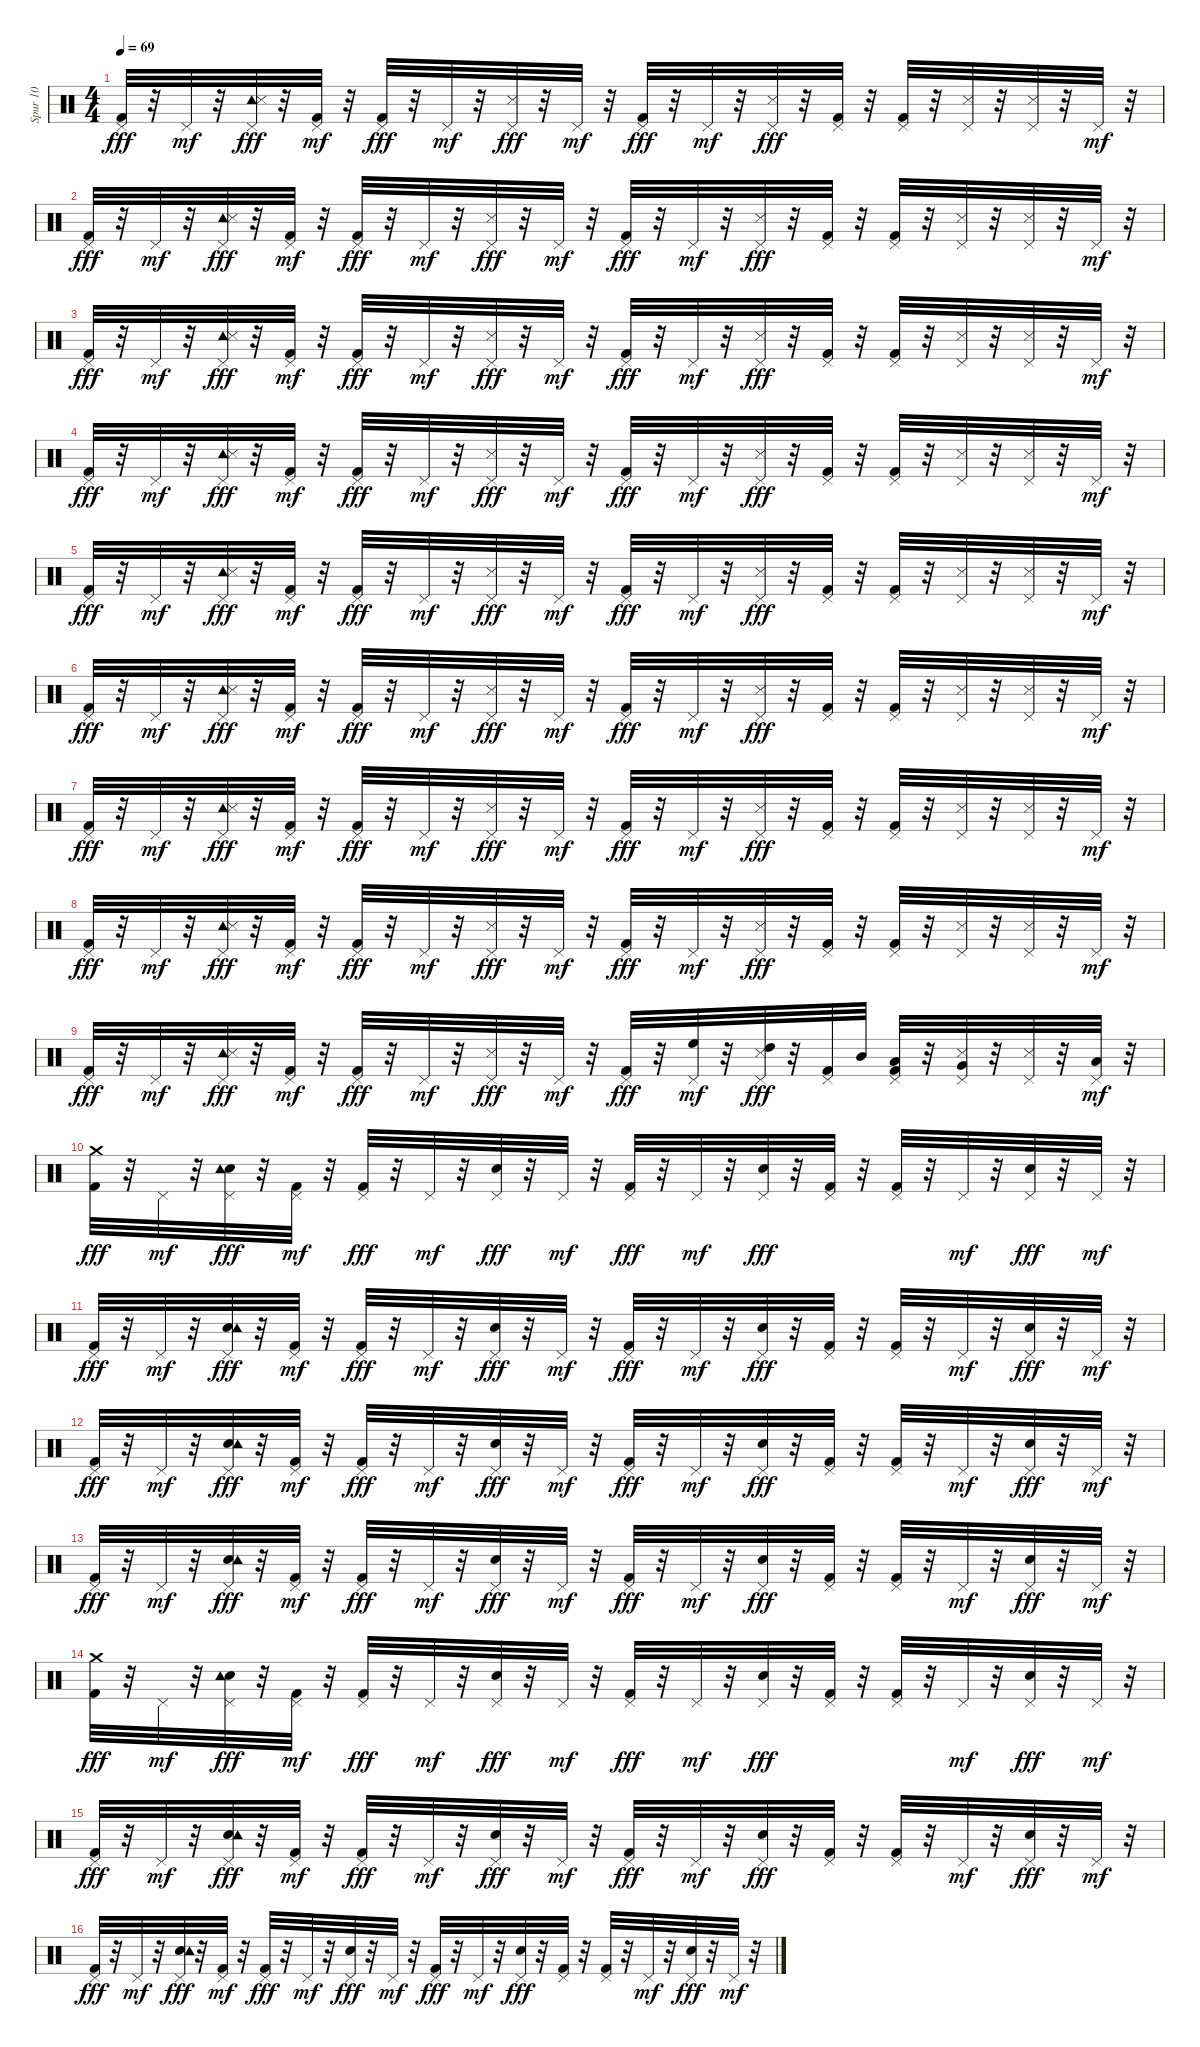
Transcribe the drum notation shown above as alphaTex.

\track ("Spur 10" "Spur 10") {instrument percussion}
\staff {score}
\articulation defaults
\ts (4 4)
\tempo 69
\clef neutral
\ks c
("Kick (hit) 2" "Pedal Hi-Hat (hit)").32{dy fff} r.32 "Pedal Hi-Hat (hit)".32{dy mf} r.32 ("Pedal Hi-Hat (hit)" "Tambourine (hit)" "Snare (side stick) 3").32{dy fff} r.32 ("Kick (hit) 2" "Pedal Hi-Hat (hit)").32{dy mf} r.32 ("Kick (hit) 2" "Pedal Hi-Hat (hit)").32{dy fff} r.32 "Pedal Hi-Hat (hit)".32{dy mf} r.32 ("Pedal Hi-Hat (hit)" "Snare (side stick) 3").32{dy fff} r.32 "Pedal Hi-Hat (hit)".32{dy mf} r.32 ("Kick (hit) 2" "Pedal Hi-Hat (hit)").32{dy fff} r.32 "Pedal Hi-Hat (hit)".32{dy mf} r.32 ("Pedal Hi-Hat (hit)" "Snare (side stick) 3").32{dy fff} r.32 ("Kick (hit) 2" "Pedal Hi-Hat (hit)").32 r.32 ("Kick (hit) 2" "Pedal Hi-Hat (hit)").32 r.32 ("Pedal Hi-Hat (hit)" "Snare (side stick) 3").32 r.32 ("Pedal Hi-Hat (hit)" "Snare (side stick) 3").32 r.32 "Pedal Hi-Hat (hit)".32{dy mf} r.32 |
("Kick (hit) 2" "Pedal Hi-Hat (hit)").32{dy fff} r.32 "Pedal Hi-Hat (hit)".32{dy mf} r.32 ("Pedal Hi-Hat (hit)" "Tambourine (hit)" "Snare (side stick) 3").32{dy fff} r.32 ("Kick (hit) 2" "Pedal Hi-Hat (hit)").32{dy mf} r.32 ("Kick (hit) 2" "Pedal Hi-Hat (hit)").32{dy fff} r.32 "Pedal Hi-Hat (hit)".32{dy mf} r.32 ("Pedal Hi-Hat (hit)" "Snare (side stick) 3").32{dy fff} r.32 "Pedal Hi-Hat (hit)".32{dy mf} r.32 ("Kick (hit) 2" "Pedal Hi-Hat (hit)").32{dy fff} r.32 "Pedal Hi-Hat (hit)".32{dy mf} r.32 ("Pedal Hi-Hat (hit)" "Snare (side stick) 3").32{dy fff} r.32 ("Kick (hit) 2" "Pedal Hi-Hat (hit)").32 r.32 ("Kick (hit) 2" "Pedal Hi-Hat (hit)").32 r.32 ("Pedal Hi-Hat (hit)" "Snare (side stick) 3").32 r.32 ("Pedal Hi-Hat (hit)" "Snare (side stick) 3").32 r.32 "Pedal Hi-Hat (hit)".32{dy mf} r.32 |
("Kick (hit) 2" "Pedal Hi-Hat (hit)").32{dy fff} r.32 "Pedal Hi-Hat (hit)".32{dy mf} r.32 ("Pedal Hi-Hat (hit)" "Tambourine (hit)" "Snare (side stick) 3").32{dy fff} r.32 ("Kick (hit) 2" "Pedal Hi-Hat (hit)").32{dy mf} r.32 ("Kick (hit) 2" "Pedal Hi-Hat (hit)").32{dy fff} r.32 "Pedal Hi-Hat (hit)".32{dy mf} r.32 ("Pedal Hi-Hat (hit)" "Snare (side stick) 3").32{dy fff} r.32 "Pedal Hi-Hat (hit)".32{dy mf} r.32 ("Kick (hit) 2" "Pedal Hi-Hat (hit)").32{dy fff} r.32 "Pedal Hi-Hat (hit)".32{dy mf} r.32 ("Pedal Hi-Hat (hit)" "Snare (side stick) 3").32{dy fff} r.32 ("Kick (hit) 2" "Pedal Hi-Hat (hit)").32 r.32 ("Kick (hit) 2" "Pedal Hi-Hat (hit)").32 r.32 ("Pedal Hi-Hat (hit)" "Snare (side stick) 3").32 r.32 ("Pedal Hi-Hat (hit)" "Snare (side stick) 3").32 r.32 "Pedal Hi-Hat (hit)".32{dy mf} r.32 |
("Kick (hit) 2" "Pedal Hi-Hat (hit)").32{dy fff} r.32 "Pedal Hi-Hat (hit)".32{dy mf} r.32 ("Pedal Hi-Hat (hit)" "Tambourine (hit)" "Snare (side stick) 3").32{dy fff} r.32 ("Kick (hit) 2" "Pedal Hi-Hat (hit)").32{dy mf} r.32 ("Kick (hit) 2" "Pedal Hi-Hat (hit)").32{dy fff} r.32 "Pedal Hi-Hat (hit)".32{dy mf} r.32 ("Pedal Hi-Hat (hit)" "Snare (side stick) 3").32{dy fff} r.32 "Pedal Hi-Hat (hit)".32{dy mf} r.32 ("Kick (hit) 2" "Pedal Hi-Hat (hit)").32{dy fff} r.32 "Pedal Hi-Hat (hit)".32{dy mf} r.32 ("Pedal Hi-Hat (hit)" "Snare (side stick) 3").32{dy fff} r.32 ("Kick (hit) 2" "Pedal Hi-Hat (hit)").32 r.32 ("Kick (hit) 2" "Pedal Hi-Hat (hit)").32 r.32 ("Pedal Hi-Hat (hit)" "Snare (side stick) 3").32 r.32 ("Pedal Hi-Hat (hit)" "Snare (side stick) 3").32 r.32 "Pedal Hi-Hat (hit)".32{dy mf} r.32 |
("Kick (hit) 2" "Pedal Hi-Hat (hit)").32{dy fff} r.32 "Pedal Hi-Hat (hit)".32{dy mf} r.32 ("Pedal Hi-Hat (hit)" "Tambourine (hit)" "Snare (side stick) 3").32{dy fff} r.32 ("Kick (hit) 2" "Pedal Hi-Hat (hit)").32{dy mf} r.32 ("Kick (hit) 2" "Pedal Hi-Hat (hit)").32{dy fff} r.32 "Pedal Hi-Hat (hit)".32{dy mf} r.32 ("Pedal Hi-Hat (hit)" "Snare (side stick) 3").32{dy fff} r.32 "Pedal Hi-Hat (hit)".32{dy mf} r.32 ("Kick (hit) 2" "Pedal Hi-Hat (hit)").32{dy fff} r.32 "Pedal Hi-Hat (hit)".32{dy mf} r.32 ("Pedal Hi-Hat (hit)" "Snare (side stick) 3").32{dy fff} r.32 ("Kick (hit) 2" "Pedal Hi-Hat (hit)").32 r.32 ("Kick (hit) 2" "Pedal Hi-Hat (hit)").32 r.32 ("Pedal Hi-Hat (hit)" "Snare (side stick) 3").32 r.32 ("Pedal Hi-Hat (hit)" "Snare (side stick) 3").32 r.32 "Pedal Hi-Hat (hit)".32{dy mf} r.32 |
("Kick (hit) 2" "Pedal Hi-Hat (hit)").32{dy fff} r.32 "Pedal Hi-Hat (hit)".32{dy mf} r.32 ("Pedal Hi-Hat (hit)" "Tambourine (hit)" "Snare (side stick) 3").32{dy fff} r.32 ("Kick (hit) 2" "Pedal Hi-Hat (hit)").32{dy mf} r.32 ("Kick (hit) 2" "Pedal Hi-Hat (hit)").32{dy fff} r.32 "Pedal Hi-Hat (hit)".32{dy mf} r.32 ("Pedal Hi-Hat (hit)" "Snare (side stick) 3").32{dy fff} r.32 "Pedal Hi-Hat (hit)".32{dy mf} r.32 ("Kick (hit) 2" "Pedal Hi-Hat (hit)").32{dy fff} r.32 "Pedal Hi-Hat (hit)".32{dy mf} r.32 ("Pedal Hi-Hat (hit)" "Snare (side stick) 3").32{dy fff} r.32 ("Kick (hit) 2" "Pedal Hi-Hat (hit)").32 r.32 ("Kick (hit) 2" "Pedal Hi-Hat (hit)").32 r.32 ("Pedal Hi-Hat (hit)" "Snare (side stick) 3").32 r.32 ("Pedal Hi-Hat (hit)" "Snare (side stick) 3").32 r.32 "Pedal Hi-Hat (hit)".32{dy mf} r.32 |
("Kick (hit) 2" "Pedal Hi-Hat (hit)").32{dy fff} r.32 "Pedal Hi-Hat (hit)".32{dy mf} r.32 ("Pedal Hi-Hat (hit)" "Tambourine (hit)" "Snare (side stick) 3").32{dy fff} r.32 ("Kick (hit) 2" "Pedal Hi-Hat (hit)").32{dy mf} r.32 ("Kick (hit) 2" "Pedal Hi-Hat (hit)").32{dy fff} r.32 "Pedal Hi-Hat (hit)".32{dy mf} r.32 ("Pedal Hi-Hat (hit)" "Snare (side stick) 3").32{dy fff} r.32 "Pedal Hi-Hat (hit)".32{dy mf} r.32 ("Kick (hit) 2" "Pedal Hi-Hat (hit)").32{dy fff} r.32 "Pedal Hi-Hat (hit)".32{dy mf} r.32 ("Pedal Hi-Hat (hit)" "Snare (side stick) 3").32{dy fff} r.32 ("Kick (hit) 2" "Pedal Hi-Hat (hit)").32 r.32 ("Kick (hit) 2" "Pedal Hi-Hat (hit)").32 r.32 ("Pedal Hi-Hat (hit)" "Snare (side stick) 3").32 r.32 ("Pedal Hi-Hat (hit)" "Snare (side stick) 3").32 r.32 "Pedal Hi-Hat (hit)".32{dy mf} r.32 |
("Kick (hit) 2" "Pedal Hi-Hat (hit)").32{dy fff} r.32 "Pedal Hi-Hat (hit)".32{dy mf} r.32 ("Pedal Hi-Hat (hit)" "Tambourine (hit)" "Snare (side stick) 3").32{dy fff} r.32 ("Kick (hit) 2" "Pedal Hi-Hat (hit)").32{dy mf} r.32 ("Kick (hit) 2" "Pedal Hi-Hat (hit)").32{dy fff} r.32 "Pedal Hi-Hat (hit)".32{dy mf} r.32 ("Pedal Hi-Hat (hit)" "Snare (side stick) 3").32{dy fff} r.32 "Pedal Hi-Hat (hit)".32{dy mf} r.32 ("Kick (hit) 2" "Pedal Hi-Hat (hit)").32{dy fff} r.32 "Pedal Hi-Hat (hit)".32{dy mf} r.32 ("Pedal Hi-Hat (hit)" "Snare (side stick) 3").32{dy fff} r.32 ("Kick (hit) 2" "Pedal Hi-Hat (hit)").32 r.32 ("Kick (hit) 2" "Pedal Hi-Hat (hit)").32 r.32 ("Pedal Hi-Hat (hit)" "Snare (side stick) 3").32 r.32 ("Pedal Hi-Hat (hit)" "Snare (side stick) 3").32 r.32 "Pedal Hi-Hat (hit)".32{dy mf} r.32 |
("Kick (hit) 2" "Pedal Hi-Hat (hit)").32{dy fff} r.32 "Pedal Hi-Hat (hit)".32{dy mf} r.32 ("Pedal Hi-Hat (hit)" "Tambourine (hit)" "Snare (side stick) 3").32{dy fff} r.32 ("Kick (hit) 2" "Pedal Hi-Hat (hit)").32{dy mf} r.32 ("Kick (hit) 2" "Pedal Hi-Hat (hit)").32{dy fff} r.32 "Pedal Hi-Hat (hit)".32{dy mf} r.32 ("Pedal Hi-Hat (hit)" "Snare (side stick) 3").32{dy fff} r.32 "Pedal Hi-Hat (hit)".32{dy mf} r.32 ("Kick (hit) 2" "Pedal Hi-Hat (hit)").32{dy fff} r.32 ("High Floor Tom (hit)" "Pedal Hi-Hat (hit)").32{dy mf} r.32 ("High Tom (hit)" "Pedal Hi-Hat (hit)" "Snare (side stick) 3").32{dy fff} r.32 ("Kick (hit) 2" "Pedal Hi-Hat (hit)").32 "Mid Tom (hit)".32 ("Kick (hit) 2" "Pedal Hi-Hat (hit)" "Low Tom (hit)").32 r.32 ("Pedal Hi-Hat (hit)" "Snare (side stick) 3" "Very Low Tom (hit)").32 r.32 ("Pedal Hi-Hat (hit)" "Snare (side stick) 3").32 r.32 ("Low Floor Tom (hit)" "Pedal Hi-Hat (hit)").32{dy mf} r.32 |
("Kick (hit) 2" "Crash medium (hit)").32{dy fff} r.32 "Pedal Hi-Hat (hit)".32{dy mf} r.32 ("Snare (hit) 2" "Pedal Hi-Hat (hit)" "Tambourine (hit)").32{dy fff} r.32 ("Kick (hit) 2" "Pedal Hi-Hat (hit)").32{dy mf} r.32 ("Kick (hit) 2" "Pedal Hi-Hat (hit)").32{dy fff} r.32 "Pedal Hi-Hat (hit)".32{dy mf} r.32 ("Snare (hit) 2" "Pedal Hi-Hat (hit)").32{dy fff} r.32 "Pedal Hi-Hat (hit)".32{dy mf} r.32 ("Kick (hit) 2" "Pedal Hi-Hat (hit)").32{dy fff} r.32 "Pedal Hi-Hat (hit)".32{dy mf} r.32 ("Snare (hit) 2" "Pedal Hi-Hat (hit)").32{dy fff} r.32 ("Kick (hit) 2" "Pedal Hi-Hat (hit)").32 r.32 ("Kick (hit) 2" "Pedal Hi-Hat (hit)").32 r.32 "Pedal Hi-Hat (hit)".32{dy mf} r.32 ("Snare (hit) 2" "Pedal Hi-Hat (hit)").32{dy fff} r.32 "Pedal Hi-Hat (hit)".32{dy mf} r.32 |
("Kick (hit) 2" "Pedal Hi-Hat (hit)").32{dy fff} r.32 "Pedal Hi-Hat (hit)".32{dy mf} r.32 ("Snare (hit) 2" "Pedal Hi-Hat (hit)" "Tambourine (hit)").32{dy fff} r.32 ("Kick (hit) 2" "Pedal Hi-Hat (hit)").32{dy mf} r.32 ("Kick (hit) 2" "Pedal Hi-Hat (hit)").32{dy fff} r.32 "Pedal Hi-Hat (hit)".32{dy mf} r.32 ("Snare (hit) 2" "Pedal Hi-Hat (hit)").32{dy fff} r.32 "Pedal Hi-Hat (hit)".32{dy mf} r.32 ("Kick (hit) 2" "Pedal Hi-Hat (hit)").32{dy fff} r.32 "Pedal Hi-Hat (hit)".32{dy mf} r.32 ("Snare (hit) 2" "Pedal Hi-Hat (hit)").32{dy fff} r.32 ("Kick (hit) 2" "Pedal Hi-Hat (hit)").32 r.32 ("Kick (hit) 2" "Pedal Hi-Hat (hit)").32 r.32 "Pedal Hi-Hat (hit)".32{dy mf} r.32 ("Snare (hit) 2" "Pedal Hi-Hat (hit)").32{dy fff} r.32 "Pedal Hi-Hat (hit)".32{dy mf} r.32 |
("Kick (hit) 2" "Pedal Hi-Hat (hit)").32{dy fff} r.32 "Pedal Hi-Hat (hit)".32{dy mf} r.32 ("Snare (hit) 2" "Pedal Hi-Hat (hit)" "Tambourine (hit)").32{dy fff} r.32 ("Kick (hit) 2" "Pedal Hi-Hat (hit)").32{dy mf} r.32 ("Kick (hit) 2" "Pedal Hi-Hat (hit)").32{dy fff} r.32 "Pedal Hi-Hat (hit)".32{dy mf} r.32 ("Snare (hit) 2" "Pedal Hi-Hat (hit)").32{dy fff} r.32 "Pedal Hi-Hat (hit)".32{dy mf} r.32 ("Kick (hit) 2" "Pedal Hi-Hat (hit)").32{dy fff} r.32 "Pedal Hi-Hat (hit)".32{dy mf} r.32 ("Snare (hit) 2" "Pedal Hi-Hat (hit)").32{dy fff} r.32 ("Kick (hit) 2" "Pedal Hi-Hat (hit)").32 r.32 ("Kick (hit) 2" "Pedal Hi-Hat (hit)").32 r.32 "Pedal Hi-Hat (hit)".32{dy mf} r.32 ("Snare (hit) 2" "Pedal Hi-Hat (hit)").32{dy fff} r.32 "Pedal Hi-Hat (hit)".32{dy mf} r.32 |
("Kick (hit) 2" "Pedal Hi-Hat (hit)").32{dy fff} r.32 "Pedal Hi-Hat (hit)".32{dy mf} r.32 ("Snare (hit) 2" "Pedal Hi-Hat (hit)" "Tambourine (hit)").32{dy fff} r.32 ("Kick (hit) 2" "Pedal Hi-Hat (hit)").32{dy mf} r.32 ("Kick (hit) 2" "Pedal Hi-Hat (hit)").32{dy fff} r.32 "Pedal Hi-Hat (hit)".32{dy mf} r.32 ("Snare (hit) 2" "Pedal Hi-Hat (hit)").32{dy fff} r.32 "Pedal Hi-Hat (hit)".32{dy mf} r.32 ("Kick (hit) 2" "Pedal Hi-Hat (hit)").32{dy fff} r.32 "Pedal Hi-Hat (hit)".32{dy mf} r.32 ("Snare (hit) 2" "Pedal Hi-Hat (hit)").32{dy fff} r.32 ("Kick (hit) 2" "Pedal Hi-Hat (hit)").32 r.32 ("Kick (hit) 2" "Pedal Hi-Hat (hit)").32 r.32 "Pedal Hi-Hat (hit)".32{dy mf} r.32 ("Snare (hit) 2" "Pedal Hi-Hat (hit)").32{dy fff} r.32 "Pedal Hi-Hat (hit)".32{dy mf} r.32 |
("Kick (hit) 2" "Crash medium (hit)").32{dy fff} r.32 "Pedal Hi-Hat (hit)".32{dy mf} r.32 ("Snare (hit) 2" "Pedal Hi-Hat (hit)" "Tambourine (hit)").32{dy fff} r.32 ("Kick (hit) 2" "Pedal Hi-Hat (hit)").32{dy mf} r.32 ("Kick (hit) 2" "Pedal Hi-Hat (hit)").32{dy fff} r.32 "Pedal Hi-Hat (hit)".32{dy mf} r.32 ("Snare (hit) 2" "Pedal Hi-Hat (hit)").32{dy fff} r.32 "Pedal Hi-Hat (hit)".32{dy mf} r.32 ("Kick (hit) 2" "Pedal Hi-Hat (hit)").32{dy fff} r.32 "Pedal Hi-Hat (hit)".32{dy mf} r.32 ("Snare (hit) 2" "Pedal Hi-Hat (hit)").32{dy fff} r.32 ("Kick (hit) 2" "Pedal Hi-Hat (hit)").32 r.32 ("Kick (hit) 2" "Pedal Hi-Hat (hit)").32 r.32 "Pedal Hi-Hat (hit)".32{dy mf} r.32 ("Snare (hit) 2" "Pedal Hi-Hat (hit)").32{dy fff} r.32 "Pedal Hi-Hat (hit)".32{dy mf} r.32 |
("Kick (hit) 2" "Pedal Hi-Hat (hit)").32{dy fff} r.32 "Pedal Hi-Hat (hit)".32{dy mf} r.32 ("Snare (hit) 2" "Pedal Hi-Hat (hit)" "Tambourine (hit)").32{dy fff} r.32 ("Kick (hit) 2" "Pedal Hi-Hat (hit)").32{dy mf} r.32 ("Kick (hit) 2" "Pedal Hi-Hat (hit)").32{dy fff} r.32 "Pedal Hi-Hat (hit)".32{dy mf} r.32 ("Snare (hit) 2" "Pedal Hi-Hat (hit)").32{dy fff} r.32 "Pedal Hi-Hat (hit)".32{dy mf} r.32 ("Kick (hit) 2" "Pedal Hi-Hat (hit)").32{dy fff} r.32 "Pedal Hi-Hat (hit)".32{dy mf} r.32 ("Snare (hit) 2" "Pedal Hi-Hat (hit)").32{dy fff} r.32 ("Kick (hit) 2" "Pedal Hi-Hat (hit)").32 r.32 ("Kick (hit) 2" "Pedal Hi-Hat (hit)").32 r.32 "Pedal Hi-Hat (hit)".32{dy mf} r.32 ("Snare (hit) 2" "Pedal Hi-Hat (hit)").32{dy fff} r.32 "Pedal Hi-Hat (hit)".32{dy mf} r.32 |
("Kick (hit) 2" "Pedal Hi-Hat (hit)").32{dy fff} r.32 "Pedal Hi-Hat (hit)".32{dy mf} r.32 ("Snare (hit) 2" "Pedal Hi-Hat (hit)" "Tambourine (hit)").32{dy fff} r.32 ("Kick (hit) 2" "Pedal Hi-Hat (hit)").32{dy mf} r.32 ("Kick (hit) 2" "Pedal Hi-Hat (hit)").32{dy fff} r.32 "Pedal Hi-Hat (hit)".32{dy mf} r.32 ("Snare (hit) 2" "Pedal Hi-Hat (hit)").32{dy fff} r.32 "Pedal Hi-Hat (hit)".32{dy mf} r.32 ("Kick (hit) 2" "Pedal Hi-Hat (hit)").32{dy fff} r.32 "Pedal Hi-Hat (hit)".32{dy mf} r.32 ("Snare (hit) 2" "Pedal Hi-Hat (hit)").32{dy fff} r.32 ("Kick (hit) 2" "Pedal Hi-Hat (hit)").32 r.32 ("Kick (hit) 2" "Pedal Hi-Hat (hit)").32 r.32 "Pedal Hi-Hat (hit)".32{dy mf} r.32 ("Snare (hit) 2" "Pedal Hi-Hat (hit)").32{dy fff} r.32 "Pedal Hi-Hat (hit)".32{dy mf} r.32
